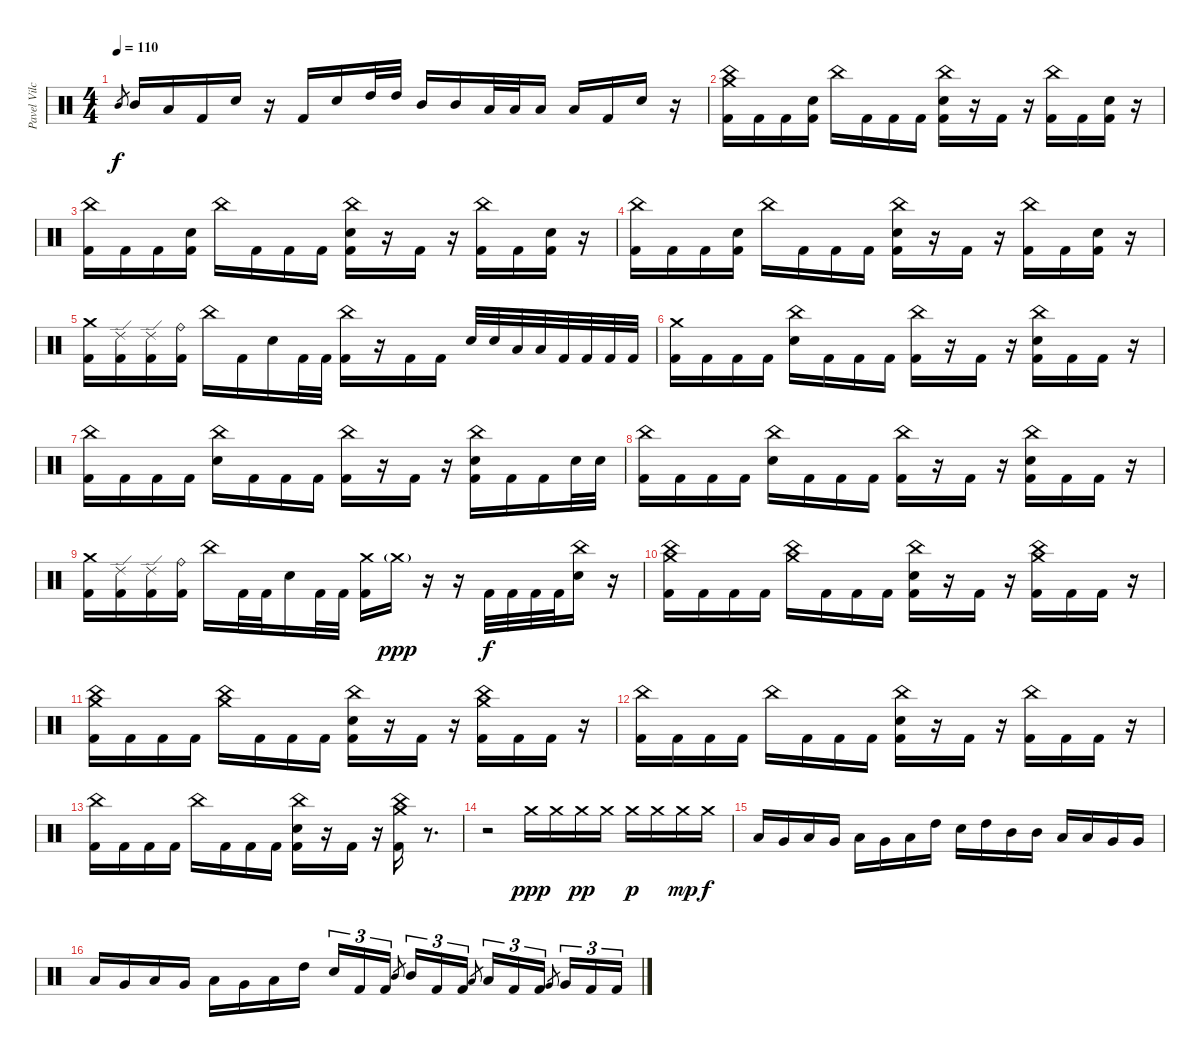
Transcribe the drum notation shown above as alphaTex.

\track ("Pavel Vilchytski" "Pavel Vilc") {instrument percussion}
\staff {score}
\articulation defaults
\ts (4 4)
\tempo 110
\clef neutral
\ks c "Mid Tom (hit)".8{gr dy f} "Mid Tom (hit)".16 "Low Tom (hit)".16 "Kick (hit) 2".16 "Electric Snare (hit)".16
r.16 "Kick (hit) 2".16 "Electric Snare (hit)".16 "High Tom (hit)".32 "High Tom (hit)".32 "Mid Tom (hit)".16 "Mid Tom (hit)".16 "Low Tom (hit)".32 "Low Tom (hit)".32 "Low Tom (hit)".16 "Low Tom (hit)".16 "Kick (hit) 2".16 "Electric Snare (hit)".16 r.16 |
("China (hit)" "Crash medium (hit)" "Kick (hit) 2").16 "Kick (hit) 2".16 "Kick (hit) 2".16 ("Electric Snare (hit)" "Kick (hit) 2").16 "China (hit)".16 "Kick (hit) 2".16 "Kick (hit) 2".16 "Kick (hit) 2".16 ("China (hit)" "Electric Snare (hit)" "Kick (hit) 2").16 r.16 "Kick (hit) 2".16 r.16 ("China (hit)" "Kick (hit) 2").16 "Kick (hit) 2".16 ("Electric Snare (hit)" "Kick (hit) 2").16 r.16 |
("China (hit)" "Kick (hit) 2").16 "Kick (hit) 2".16 "Kick (hit) 2".16 ("Electric Snare (hit)" "Kick (hit) 2").16 "China (hit)".16 "Kick (hit) 2".16 "Kick (hit) 2".16 "Kick (hit) 2".16 ("China (hit)" "Electric Snare (hit)" "Kick (hit) 2").16 r.16 "Kick (hit) 2".16 r.16 ("China (hit)" "Kick (hit) 2").16 "Kick (hit) 2".16 ("Electric Snare (hit)" "Kick (hit) 2").16 r.16 |
("China (hit)" "Kick (hit) 2").16 "Kick (hit) 2".16 "Kick (hit) 2".16 ("Electric Snare (hit)" "Kick (hit) 2").16 "China (hit)".16 "Kick (hit) 2".16 "Kick (hit) 2".16 "Kick (hit) 2".16 ("China (hit)" "Electric Snare (hit)" "Kick (hit) 2").16 r.16 "Kick (hit) 2".16 r.16 ("China (hit)" "Kick (hit) 2").16 "Kick (hit) 2".16 ("Electric Snare (hit)" "Kick (hit) 2").16 r.16 |
("Crash medium (hit)" "Kick (hit) 2").16 ("Ride (edge) 2" "Kick (hit) 2").16 ("Ride (edge) 2" "Kick (hit) 2").16 ("Ride (bell)" "Kick (hit) 2").16 "China (hit)".16 "Kick (hit) 2".16 "Electric Snare (hit)".16 "Kick (hit) 2".32 "Kick (hit) 2".32 ("China (hit)" "Kick (hit) 2").16 r.16 "Kick (hit) 2".16 "Kick (hit) 2".16 "Electric Snare (hit)".32 "Electric Snare (hit)".32 "Low Tom (hit)".32 "Low Tom (hit)".32 "Kick (hit) 2".32 "Kick (hit) 2".32 "Kick (hit) 2".32 "Kick (hit) 2".32 |
("Crash medium (hit)" "Kick (hit) 2").16 "Kick (hit) 2".16 "Kick (hit) 2".16 "Kick (hit) 2".16 ("China (hit)" "Electric Snare (hit)").16 "Kick (hit) 2".16 "Kick (hit) 2".16 "Kick (hit) 2".16 ("China (hit)" "Kick (hit) 2").16 r.16 "Kick (hit) 2".16 r.16 ("China (hit)" "Electric Snare (hit)" "Kick (hit) 2").16 "Kick (hit) 2".16 "Kick (hit) 2".16 r.16 |
("China (hit)" "Kick (hit) 2").16 "Kick (hit) 2".16 "Kick (hit) 2".16 "Kick (hit) 2".16 ("China (hit)" "Electric Snare (hit)").16 "Kick (hit) 2".16 "Kick (hit) 2".16 "Kick (hit) 2".16 ("China (hit)" "Kick (hit) 2").16 r.16 "Kick (hit) 2".16 r.16 ("China (hit)" "Electric Snare (hit)" "Kick (hit) 2").16 "Kick (hit) 2".16 "Kick (hit) 2".16 "Electric Snare (hit)".32 "Electric Snare (hit)".32 |
("China (hit)" "Kick (hit) 2").16 "Kick (hit) 2".16 "Kick (hit) 2".16 "Kick (hit) 2".16 ("China (hit)" "Electric Snare (hit)").16 "Kick (hit) 2".16 "Kick (hit) 2".16 "Kick (hit) 2".16 ("China (hit)" "Kick (hit) 2").16 r.16 "Kick (hit) 2".16 r.16 ("China (hit)" "Electric Snare (hit)" "Kick (hit) 2").16 "Kick (hit) 2".16 "Kick (hit) 2".16 r.16 |
("Crash medium (hit)" "Kick (hit) 2").16 ("Ride (edge) 2" "Kick (hit) 2").16 ("Ride (edge) 2" "Kick (hit) 2").16 ("Ride (bell)" "Kick (hit) 2").16 "China (hit)".16 "Kick (hit) 2".32 "Kick (hit) 2".32 "Electric Snare (hit)".16 "Kick (hit) 2".32 "Kick (hit) 2".32 ("Crash medium (hit)" "Kick (hit) 2").16 "Crash medium (hit)"{g}.16{dy ppp} r.16 r.16 "Kick (hit) 2".32{dy f} "Kick (hit) 2".32 "Kick (hit) 2".32 "Kick (hit) 2".32 ("China (hit)" "Electric Snare (hit)").16 r.16 |
("China (hit)" "Crash medium (hit)" "Kick (hit) 2").16 "Kick (hit) 2".16 "Kick (hit) 2".16 "Kick (hit) 2".16 ("China (hit)" "Crash medium (hit)").16 "Kick (hit) 2".16 "Kick (hit) 2".16 "Kick (hit) 2".16 ("China (hit)" "Electric Snare (hit)" "Kick (hit) 2").16 r.16 "Kick (hit) 2".16 r.16 ("China (hit)" "Crash medium (hit)" "Kick (hit) 2").16 "Kick (hit) 2".16 "Kick (hit) 2".16 r.16 |
("China (hit)" "Crash medium (hit)" "Kick (hit) 2").16 "Kick (hit) 2".16 "Kick (hit) 2".16 "Kick (hit) 2".16 ("China (hit)" "Crash medium (hit)").16 "Kick (hit) 2".16 "Kick (hit) 2".16 "Kick (hit) 2".16 ("China (hit)" "Electric Snare (hit)" "Kick (hit) 2").16 r.16 "Kick (hit) 2".16 r.16 ("China (hit)" "Crash medium (hit)" "Kick (hit) 2").16 "Kick (hit) 2".16 "Kick (hit) 2".16 r.16 |
("China (hit)" "Kick (hit) 2").16 "Kick (hit) 2".16 "Kick (hit) 2".16 "Kick (hit) 2".16 "China (hit)".16 "Kick (hit) 2".16 "Kick (hit) 2".16 "Kick (hit) 2".16 ("China (hit)" "Electric Snare (hit)" "Kick (hit) 2").16 r.16 "Kick (hit) 2".16 r.16 ("China (hit)" "Kick (hit) 2").16 "Kick (hit) 2".16 "Kick (hit) 2".16 r.16 |
("China (hit)" "Kick (hit) 2").16 "Kick (hit) 2".16 "Kick (hit) 2".16 "Kick (hit) 2".16 "China (hit)".16 "Kick (hit) 2".16 "Kick (hit) 2".16 "Kick (hit) 2".16 ("China (hit)" "Electric Snare (hit)" "Kick (hit) 2").16 r.16 "Kick (hit) 2".16 r.16 ("China (hit)" "Crash medium (hit)" "Kick (hit) 2").16 r.8{d} |
r.2 "Crash medium (hit)".16{dy ppp} "Crash medium (hit)".16 "Crash medium (hit)".16{dy pp} "Crash medium (hit)".16 "Crash medium (hit)".16{dy p} "Crash medium (hit)".16 "Crash medium (hit)".16{dy mp} "Crash medium (hit)".16{dy f} |
"Low Tom (hit)".16 "Very Low Tom (hit)".16 "Low Tom (hit)".16 "Very Low Tom (hit)".16 "Low Tom (hit)".16 "Very Low Tom (hit)".16 "Low Tom (hit)".16 "High Tom (hit)".16 "Electric Snare (hit)".16 "High Tom (hit)".16 "Mid Tom (hit)".16 "Mid Tom (hit)".16 "Low Tom (hit)".16 "Low Tom (hit)".16 "Very Low Tom (hit)".16 "Very Low Tom (hit)".16 |
"Low Tom (hit)".16 "Very Low Tom (hit)".16 "Low Tom (hit)".16 "Very Low Tom (hit)".16 "Low Tom (hit)".16 "Very Low Tom (hit)".16 "Low Tom (hit)".16 "High Tom (hit)".16 "Electric Snare (hit)".16{tu (3 2)} "Kick (hit) 2".16{tu (3 2)} "Kick (hit) 2".16{tu (3 2)} "Mid Tom (hit)".8{gr beam splitsecondary} "Mid Tom (hit)".16{tu (3 2)} "Kick (hit) 2".16{tu (3 2)} "Kick (hit) 2".16{tu (3 2)} "Low Tom (hit)".8{gr} "Low Tom (hit)".16{tu (3 2)} "Kick (hit) 2".16{tu (3 2)} "Kick (hit) 2".16{tu (3 2)} "Very Low Tom (hit)".8{gr beam splitsecondary} "Very Low Tom (hit)".16{tu (3 2)} "Kick (hit) 2".16{tu (3 2)} "Kick (hit) 2".16{tu (3 2)}
